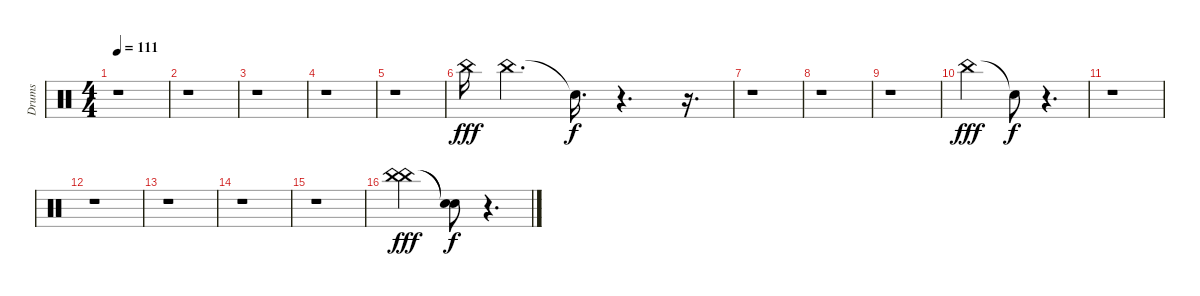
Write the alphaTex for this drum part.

\track ("Drums" "Drums") {instrument percussion}
\staff {score}
\articulation defaults
\ts (4 4)
\tempo 111
\clef neutral
\ks c
r.1{dy fff} |
r.1 |
r.1 |
r.1 |
r.1 |
"China (hit)".16 "China (hit)".4{d} "Snare (hit)"{t}.16{d dy f} r.4{d} r.16{d} |
r.1 |
r.1 |
r.1 |
"China (hit)".2{dy fff} "Snare (hit)"{t}.8{dy f} r.4{d} |
r.1 |
r.1 |
r.1 |
r.1 |
r.1 |
("China (hit)" "China (hit)").2{dy fff} ("Snare (hit)"{t} "Snare (hit)"{t}).8{dy f} r.4{d}
